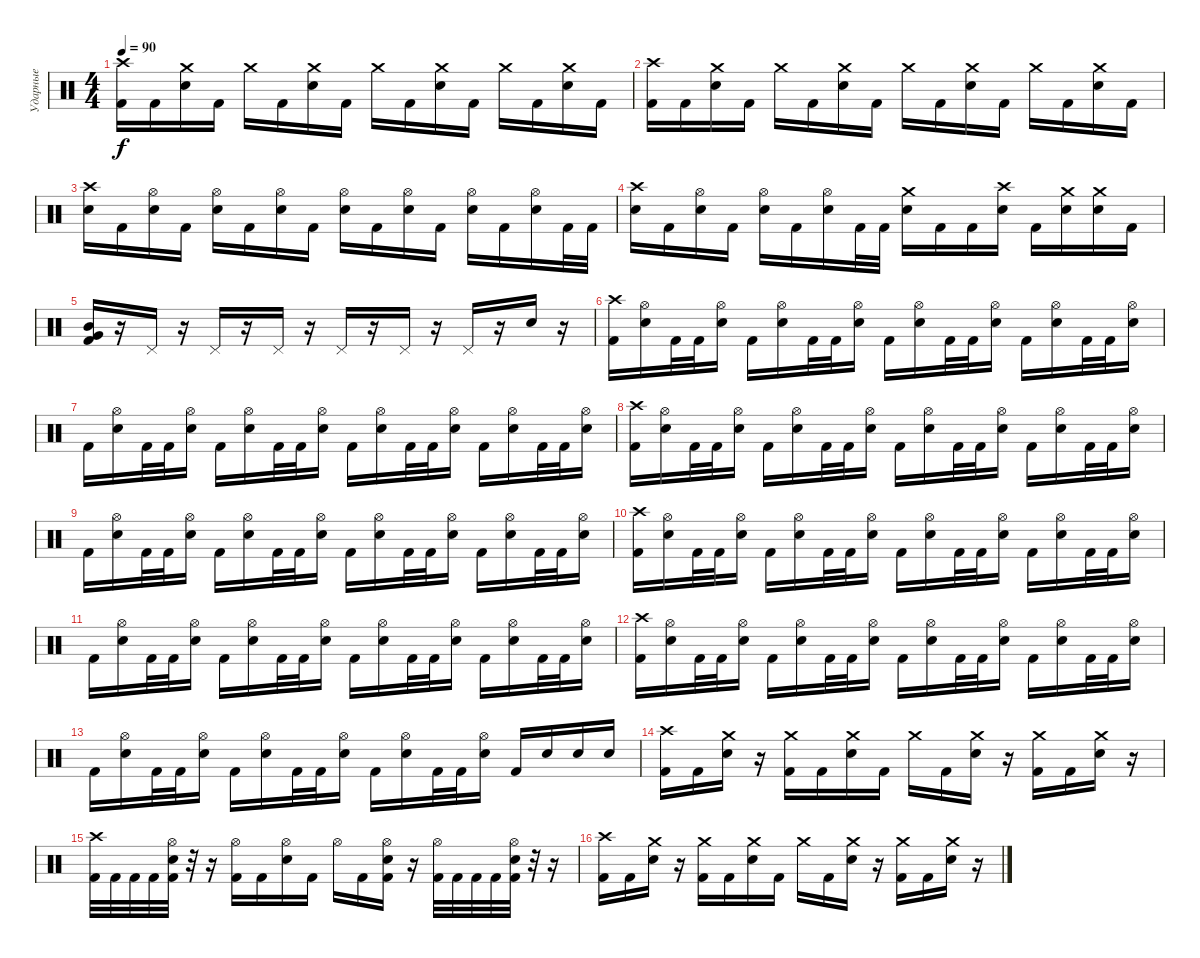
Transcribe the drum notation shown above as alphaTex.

\track ("Ударные" "Ударные") {instrument percussion}
\staff {score}
\articulation defaults
\ts (4 4)
\tempo 90
\clef neutral
\ks c
("Crash high (hit)" "Kick (hit) 2").16{dy f} "Kick (hit) 2".16 ("Crash medium (hit)" "Electric Snare (hit)").16 "Kick (hit) 2".16 "Crash medium (hit)".16 "Kick (hit) 2".16 ("Crash medium (hit)" "Electric Snare (hit)").16 "Kick (hit) 2".16 "Crash medium (hit)".16 "Kick (hit) 2".16 ("Crash medium (hit)" "Electric Snare (hit)").16 "Kick (hit) 2".16 "Crash medium (hit)".16 "Kick (hit) 2".16 ("Crash medium (hit)" "Electric Snare (hit)").16 "Kick (hit) 2".16 |
("Crash high (hit)" "Kick (hit) 2").16 "Kick (hit) 2".16 ("Crash medium (hit)" "Electric Snare (hit)").16 "Kick (hit) 2".16 "Crash medium (hit)".16 "Kick (hit) 2".16 ("Crash medium (hit)" "Electric Snare (hit)").16 "Kick (hit) 2".16 "Crash medium (hit)".16 "Kick (hit) 2".16 ("Crash medium (hit)" "Electric Snare (hit)").16 "Kick (hit) 2".16 "Crash medium (hit)".16 "Kick (hit) 2".16 ("Crash medium (hit)" "Electric Snare (hit)").16 "Kick (hit) 2".16 |
("Crash high (hit)" "Electric Snare (hit)").16 "Kick (hit) 2".16 ("Hi-Hat (open)" "Electric Snare (hit)").16 "Kick (hit) 2".16 ("Hi-Hat (open)" "Electric Snare (hit)").16 "Kick (hit) 2".16 ("Hi-Hat (open)" "Electric Snare (hit)").16 "Kick (hit) 2".16 ("Hi-Hat (open)" "Electric Snare (hit)").16 "Kick (hit) 2".16 ("Hi-Hat (open)" "Electric Snare (hit)").16 "Kick (hit) 2".16 ("Hi-Hat (open)" "Electric Snare (hit)").16 "Kick (hit) 2".16 ("Hi-Hat (open)" "Electric Snare (hit)").16 "Kick (hit) 2".32 "Kick (hit) 2".32 |
("Crash high (hit)" "Electric Snare (hit)").16 "Kick (hit) 2".16 ("Hi-Hat (open)" "Electric Snare (hit)").16 "Kick (hit) 2".16 ("Hi-Hat (open)" "Electric Snare (hit)").16 "Kick (hit) 2".16 ("Hi-Hat (open)" "Electric Snare (hit)").16 "Kick (hit) 2".32 "Kick (hit) 2".32 ("Crash medium (hit)" "Electric Snare (hit)").16 "Kick (hit) 2".16 "Kick (hit) 2".16 ("Crash high (hit)" "Electric Snare (hit)").16 "Kick (hit) 2".16 ("Crash medium (hit)" "Electric Snare (hit)").16 ("Crash medium (hit)" "Electric Snare (hit)").16 "Kick (hit) 2".16 |
("Mid Tom (hit)" "Very Low Tom (hit)" "Kick (hit) 2").16 r.16 "Pedal Hi-Hat (hit)".16 r.16 "Pedal Hi-Hat (hit)".16 r.16 "Pedal Hi-Hat (hit)".16 r.16 "Pedal Hi-Hat (hit)".16 r.16 "Pedal Hi-Hat (hit)".16 r.16 "Pedal Hi-Hat (hit)".16 r.16 "Electric Snare (hit)".16 r.16 |
("Crash high (hit)" "Kick (hit) 2").16 ("Hi-Hat (open)" "Electric Snare (hit)").16 "Kick (hit) 2".32 "Kick (hit) 2".32 ("Hi-Hat (open)" "Electric Snare (hit)").16 "Kick (hit) 2".16 ("Hi-Hat (open)" "Electric Snare (hit)").16 "Kick (hit) 2".32 "Kick (hit) 2".32 ("Hi-Hat (open)" "Electric Snare (hit)").16 "Kick (hit) 2".16 ("Hi-Hat (open)" "Electric Snare (hit)").16 "Kick (hit) 2".32 "Kick (hit) 2".32 ("Hi-Hat (open)" "Electric Snare (hit)").16 "Kick (hit) 2".16 ("Hi-Hat (open)" "Electric Snare (hit)").16 "Kick (hit) 2".32 "Kick (hit) 2".32 ("Hi-Hat (open)" "Electric Snare (hit)").16 |
"Kick (hit) 2".16 ("Hi-Hat (open)" "Electric Snare (hit)").16 "Kick (hit) 2".32 "Kick (hit) 2".32 ("Hi-Hat (open)" "Electric Snare (hit)").16 "Kick (hit) 2".16 ("Hi-Hat (open)" "Electric Snare (hit)").16 "Kick (hit) 2".32 "Kick (hit) 2".32 ("Hi-Hat (open)" "Electric Snare (hit)").16 "Kick (hit) 2".16 ("Hi-Hat (open)" "Electric Snare (hit)").16 "Kick (hit) 2".32 "Kick (hit) 2".32 ("Hi-Hat (open)" "Electric Snare (hit)").16 "Kick (hit) 2".16 ("Hi-Hat (open)" "Electric Snare (hit)").16 "Kick (hit) 2".32 "Kick (hit) 2".32 ("Hi-Hat (open)" "Electric Snare (hit)").16 |
("Crash high (hit)" "Kick (hit) 2").16 ("Hi-Hat (open)" "Electric Snare (hit)").16 "Kick (hit) 2".32 "Kick (hit) 2".32 ("Hi-Hat (open)" "Electric Snare (hit)").16 "Kick (hit) 2".16 ("Hi-Hat (open)" "Electric Snare (hit)").16 "Kick (hit) 2".32 "Kick (hit) 2".32 ("Hi-Hat (open)" "Electric Snare (hit)").16 "Kick (hit) 2".16 ("Hi-Hat (open)" "Electric Snare (hit)").16 "Kick (hit) 2".32 "Kick (hit) 2".32 ("Hi-Hat (open)" "Electric Snare (hit)").16 "Kick (hit) 2".16 ("Hi-Hat (open)" "Electric Snare (hit)").16 "Kick (hit) 2".32 "Kick (hit) 2".32 ("Hi-Hat (open)" "Electric Snare (hit)").16 |
"Kick (hit) 2".16 ("Hi-Hat (open)" "Electric Snare (hit)").16 "Kick (hit) 2".32 "Kick (hit) 2".32 ("Hi-Hat (open)" "Electric Snare (hit)").16 "Kick (hit) 2".16 ("Hi-Hat (open)" "Electric Snare (hit)").16 "Kick (hit) 2".32 "Kick (hit) 2".32 ("Hi-Hat (open)" "Electric Snare (hit)").16 "Kick (hit) 2".16 ("Hi-Hat (open)" "Electric Snare (hit)").16 "Kick (hit) 2".32 "Kick (hit) 2".32 ("Hi-Hat (open)" "Electric Snare (hit)").16 "Kick (hit) 2".16 ("Hi-Hat (open)" "Electric Snare (hit)").16 "Kick (hit) 2".32 "Kick (hit) 2".32 ("Hi-Hat (open)" "Electric Snare (hit)").16 |
("Crash high (hit)" "Kick (hit) 2").16 ("Hi-Hat (open)" "Electric Snare (hit)").16 "Kick (hit) 2".32 "Kick (hit) 2".32 ("Hi-Hat (open)" "Electric Snare (hit)").16 "Kick (hit) 2".16 ("Hi-Hat (open)" "Electric Snare (hit)").16 "Kick (hit) 2".32 "Kick (hit) 2".32 ("Hi-Hat (open)" "Electric Snare (hit)").16 "Kick (hit) 2".16 ("Hi-Hat (open)" "Electric Snare (hit)").16 "Kick (hit) 2".32 "Kick (hit) 2".32 ("Hi-Hat (open)" "Electric Snare (hit)").16 "Kick (hit) 2".16 ("Hi-Hat (open)" "Electric Snare (hit)").16 "Kick (hit) 2".32 "Kick (hit) 2".32 ("Hi-Hat (open)" "Electric Snare (hit)").16 |
"Kick (hit) 2".16 ("Hi-Hat (open)" "Electric Snare (hit)").16 "Kick (hit) 2".32 "Kick (hit) 2".32 ("Hi-Hat (open)" "Electric Snare (hit)").16 "Kick (hit) 2".16 ("Hi-Hat (open)" "Electric Snare (hit)").16 "Kick (hit) 2".32 "Kick (hit) 2".32 ("Hi-Hat (open)" "Electric Snare (hit)").16 "Kick (hit) 2".16 ("Hi-Hat (open)" "Electric Snare (hit)").16 "Kick (hit) 2".32 "Kick (hit) 2".32 ("Hi-Hat (open)" "Electric Snare (hit)").16 "Kick (hit) 2".16 ("Hi-Hat (open)" "Electric Snare (hit)").16 "Kick (hit) 2".32 "Kick (hit) 2".32 ("Hi-Hat (open)" "Electric Snare (hit)").16 |
("Crash high (hit)" "Kick (hit) 2").16 ("Hi-Hat (open)" "Electric Snare (hit)").16 "Kick (hit) 2".32 "Kick (hit) 2".32 ("Hi-Hat (open)" "Electric Snare (hit)").16 "Kick (hit) 2".16 ("Hi-Hat (open)" "Electric Snare (hit)").16 "Kick (hit) 2".32 "Kick (hit) 2".32 ("Hi-Hat (open)" "Electric Snare (hit)").16 "Kick (hit) 2".16 ("Hi-Hat (open)" "Electric Snare (hit)").16 "Kick (hit) 2".32 "Kick (hit) 2".32 ("Hi-Hat (open)" "Electric Snare (hit)").16 "Kick (hit) 2".16 ("Hi-Hat (open)" "Electric Snare (hit)").16 "Kick (hit) 2".32 "Kick (hit) 2".32 ("Hi-Hat (open)" "Electric Snare (hit)").16 |
"Kick (hit) 2".16 ("Hi-Hat (open)" "Electric Snare (hit)").16 "Kick (hit) 2".32 "Kick (hit) 2".32 ("Hi-Hat (open)" "Electric Snare (hit)").16 "Kick (hit) 2".16 ("Hi-Hat (open)" "Electric Snare (hit)").16 "Kick (hit) 2".32 "Kick (hit) 2".32 ("Hi-Hat (open)" "Electric Snare (hit)").16 "Kick (hit) 2".16 ("Hi-Hat (open)" "Electric Snare (hit)").16 "Kick (hit) 2".32 "Kick (hit) 2".32 ("Hi-Hat (open)" "Electric Snare (hit)").16 "Kick (hit) 2".16 "Electric Snare (hit)".16 "Electric Snare (hit)".16 "Electric Snare (hit)".16 |
("Crash high (hit)" "Kick (hit) 2").16 "Kick (hit) 2".16 ("Crash medium (hit)" "Electric Snare (hit)").16 r.16 ("Crash medium (hit)" "Kick (hit) 2").16 "Kick (hit) 2".16 ("Crash medium (hit)" "Electric Snare (hit)").16 "Kick (hit) 2".16 "Crash medium (hit)".16 "Kick (hit) 2".16 ("Crash medium (hit)" "Electric Snare (hit)").16 r.16 ("Crash medium (hit)" "Kick (hit) 2").16 "Kick (hit) 2".16 ("Crash medium (hit)" "Electric Snare (hit)").16 r.16 |
("Crash high (hit)" "Kick (hit) 2").32 "Kick (hit) 2".32 "Kick (hit) 2".32 "Kick (hit) 2".32 ("Hi-Hat (open)" "Electric Snare (hit)" "Kick (hit) 2").32 r.32 r.16 ("Hi-Hat (open)" "Kick (hit) 2").16 "Kick (hit) 2".16 ("Hi-Hat (open)" "Electric Snare (hit)").16 "Kick (hit) 2".16 "Hi-Hat (open)".16 "Kick (hit) 2".16 ("Hi-Hat (open)" "Electric Snare (hit)" "Kick (hit) 2").16 r.16 ("Hi-Hat (open)" "Kick (hit) 2").32 "Kick (hit) 2".32 "Kick (hit) 2".32 "Kick (hit) 2".32 ("Hi-Hat (open)" "Electric Snare (hit)" "Kick (hit) 2").32 r.32 r.16 |
("Crash high (hit)" "Kick (hit) 2").16 "Kick (hit) 2".16 ("Crash medium (hit)" "Electric Snare (hit)").16 r.16 ("Crash medium (hit)" "Kick (hit) 2").16 "Kick (hit) 2".16 ("Crash medium (hit)" "Electric Snare (hit)").16 "Kick (hit) 2".16 "Crash medium (hit)".16 "Kick (hit) 2".16 ("Crash medium (hit)" "Electric Snare (hit)").16 r.16 ("Crash medium (hit)" "Kick (hit) 2").16 "Kick (hit) 2".16 ("Crash medium (hit)" "Electric Snare (hit)").16 r.16
